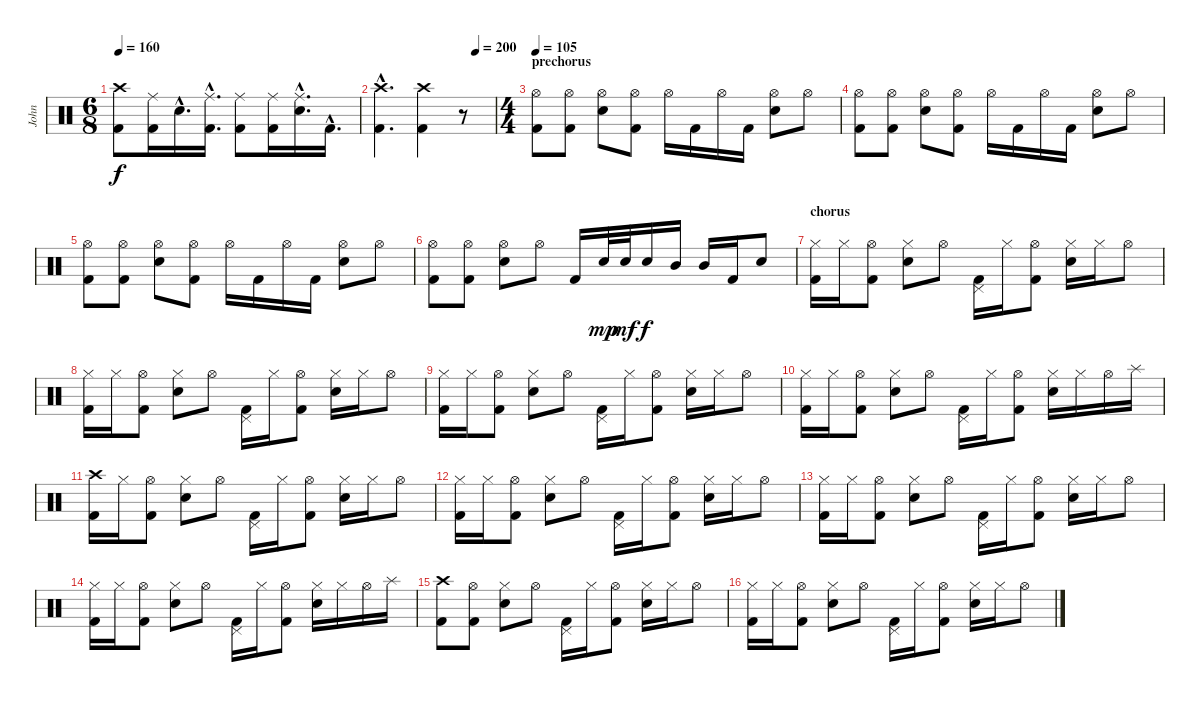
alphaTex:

\track ("John" "John") {instrument percussion}
\staff {score}
\articulation defaults
\ts (6 8)
\tempo 160
\clef neutral
\ks c
("Crash high (hit)" "Kick (hit) 2").8{dy f} ("Ride (middle)" "Kick (hit) 2").16 "Electric Snare (hit)"{hac}.16{d} ("Ride (middle)"{hac} "Kick (hit) 2"{hac}).16{d} ("Ride (middle)" "Kick (hit) 2").8 ("Ride (middle)" "Kick (hit) 2").16 ("Ride (middle)"{hac} "Electric Snare (hit)"{hac}).16{d} "Kick (hit) 2"{hac}.16{d} |
\tempo (200 0.8333333333333334)
("Crash high (hit)"{hac} "Kick (hit) 2"{hac}).4{d} ("Crash high (hit)" "Kick (hit) 2").4 r.8 |
\ts (4 4)
\section ("" "prechorus")
\tempo 105
("Hi-Hat (open)" "Kick (hit) 2").8 ("Hi-Hat (open)" "Kick (hit) 2").8 ("Hi-Hat (open)" "Electric Snare (hit)").8 ("Hi-Hat (open)" "Kick (hit) 2").8 "Hi-Hat (open)".16 "Kick (hit) 2".16 "Hi-Hat (open)".16 "Kick (hit) 2".16 ("Hi-Hat (open)" "Electric Snare (hit)").8 "Hi-Hat (open)".8 |
("Hi-Hat (open)" "Kick (hit) 2").8 ("Hi-Hat (open)" "Kick (hit) 2").8 ("Hi-Hat (open)" "Electric Snare (hit)").8 ("Hi-Hat (open)" "Kick (hit) 2").8 "Hi-Hat (open)".16 "Kick (hit) 2".16 "Hi-Hat (open)".16 "Kick (hit) 2".16 ("Hi-Hat (open)" "Electric Snare (hit)").8 "Hi-Hat (open)".8 |
("Hi-Hat (open)" "Kick (hit) 2").8 ("Hi-Hat (open)" "Kick (hit) 2").8 ("Hi-Hat (open)" "Electric Snare (hit)").8 ("Hi-Hat (open)" "Kick (hit) 2").8 "Hi-Hat (open)".16 "Kick (hit) 2".16 "Hi-Hat (open)".16 "Kick (hit) 2".16 ("Hi-Hat (open)" "Electric Snare (hit)").8 "Hi-Hat (open)".8 |
("Hi-Hat (open)" "Kick (hit) 2").8 ("Hi-Hat (open)" "Kick (hit) 2").8 ("Hi-Hat (open)" "Electric Snare (hit)").8 "Hi-Hat (open)".8 "Kick (hit) 2".16 "Electric Snare (hit)".32{dy mp} "Electric Snare (hit)".32{dy mf} "Electric Snare (hit)".16{dy f} "Mid Tom (hit)".16 "Mid Tom (hit)".16 "Kick (hit) 2".16 "Electric Snare (hit)".8 |
\section ("" "chorus")
("Hi-Hat (closed)" "Kick (hit) 2").16 "Hi-Hat (closed)".16 ("Hi-Hat (open)" "Kick (hit) 2").8 ("Hi-Hat (closed)" "Electric Snare (hit)").8 "Hi-Hat (open)".8 ("Pedal Hi-Hat (hit)" "Kick (hit) 2").16 "Hi-Hat (closed)".16 ("Hi-Hat (open)" "Kick (hit) 2").8 ("Hi-Hat (closed)" "Electric Snare (hit)").16 "Hi-Hat (closed)".16 "Hi-Hat (open)".8 |
("Hi-Hat (closed)" "Kick (hit) 2").16 "Hi-Hat (closed)".16 ("Hi-Hat (open)" "Kick (hit) 2").8 ("Hi-Hat (closed)" "Electric Snare (hit)").8 "Hi-Hat (open)".8 ("Pedal Hi-Hat (hit)" "Kick (hit) 2").16 "Hi-Hat (closed)".16 ("Hi-Hat (open)" "Kick (hit) 2").8 ("Hi-Hat (closed)" "Electric Snare (hit)").16 "Hi-Hat (closed)".16 "Hi-Hat (open)".8 |
("Hi-Hat (closed)" "Kick (hit) 2").16 "Hi-Hat (closed)".16 ("Hi-Hat (open)" "Kick (hit) 2").8 ("Hi-Hat (closed)" "Electric Snare (hit)").8 "Hi-Hat (open)".8 ("Pedal Hi-Hat (hit)" "Kick (hit) 2").16 "Hi-Hat (closed)".16 ("Hi-Hat (open)" "Kick (hit) 2").8 ("Hi-Hat (closed)" "Electric Snare (hit)").16 "Hi-Hat (closed)".16 "Hi-Hat (open)".8 |
("Hi-Hat (closed)" "Kick (hit) 2").16 "Hi-Hat (closed)".16 ("Hi-Hat (open)" "Kick (hit) 2").8 ("Hi-Hat (closed)" "Electric Snare (hit)").8 "Hi-Hat (open)".8 ("Pedal Hi-Hat (hit)" "Kick (hit) 2").16 "Hi-Hat (closed)".16 ("Hi-Hat (open)" "Kick (hit) 2").8 ("Hi-Hat (closed)" "Electric Snare (hit)").16 "Hi-Hat (closed)".16 "Hi-Hat (open)".16 "Splash (hit)".16 |
("Crash high (hit)" "Kick (hit) 2").16 "Hi-Hat (closed)".16 ("Hi-Hat (open)" "Kick (hit) 2").8 ("Hi-Hat (closed)" "Electric Snare (hit)").8 "Hi-Hat (open)".8 ("Pedal Hi-Hat (hit)" "Kick (hit) 2").16 "Hi-Hat (closed)".16 ("Hi-Hat (open)" "Kick (hit) 2").8 ("Hi-Hat (closed)" "Electric Snare (hit)").16 "Hi-Hat (closed)".16 "Hi-Hat (open)".8 |
("Hi-Hat (closed)" "Kick (hit) 2").16 "Hi-Hat (closed)".16 ("Hi-Hat (open)" "Kick (hit) 2").8 ("Hi-Hat (closed)" "Electric Snare (hit)").8 "Hi-Hat (open)".8 ("Pedal Hi-Hat (hit)" "Kick (hit) 2").16 "Hi-Hat (closed)".16 ("Hi-Hat (open)" "Kick (hit) 2").8 ("Hi-Hat (closed)" "Electric Snare (hit)").16 "Hi-Hat (closed)".16 "Hi-Hat (open)".8 |
("Hi-Hat (closed)" "Kick (hit) 2").16 "Hi-Hat (closed)".16 ("Hi-Hat (open)" "Kick (hit) 2").8 ("Hi-Hat (closed)" "Electric Snare (hit)").8 "Hi-Hat (open)".8 ("Pedal Hi-Hat (hit)" "Kick (hit) 2").16 "Hi-Hat (closed)".16 ("Hi-Hat (open)" "Kick (hit) 2").8 ("Hi-Hat (closed)" "Electric Snare (hit)").16 "Hi-Hat (closed)".16 "Hi-Hat (open)".8 |
("Hi-Hat (closed)" "Kick (hit) 2").16 "Hi-Hat (closed)".16 ("Hi-Hat (open)" "Kick (hit) 2").8 ("Hi-Hat (closed)" "Electric Snare (hit)").8 "Hi-Hat (open)".8 ("Pedal Hi-Hat (hit)" "Kick (hit) 2").16 "Hi-Hat (closed)".16 ("Hi-Hat (open)" "Kick (hit) 2").8 ("Hi-Hat (closed)" "Electric Snare (hit)").16 "Hi-Hat (closed)".16 "Hi-Hat (open)".16 "Splash (hit)".16 |
("Crash high (hit)" "Kick (hit) 2").8 ("Hi-Hat (open)" "Kick (hit) 2").8 ("Hi-Hat (closed)" "Electric Snare (hit)").8 "Hi-Hat (open)".8 ("Pedal Hi-Hat (hit)" "Kick (hit) 2").16 "Hi-Hat (closed)".16 ("Hi-Hat (open)" "Kick (hit) 2").8 ("Hi-Hat (closed)" "Electric Snare (hit)").16 "Hi-Hat (closed)".16 "Hi-Hat (open)".8 |
("Hi-Hat (closed)" "Kick (hit) 2").16 "Hi-Hat (closed)".16 ("Hi-Hat (open)" "Kick (hit) 2").8 ("Hi-Hat (closed)" "Electric Snare (hit)").8 "Hi-Hat (open)".8 ("Pedal Hi-Hat (hit)" "Kick (hit) 2").16 "Hi-Hat (closed)".16 ("Hi-Hat (open)" "Kick (hit) 2").8 ("Hi-Hat (closed)" "Electric Snare (hit)").16 "Hi-Hat (closed)".16 "Hi-Hat (open)".8
